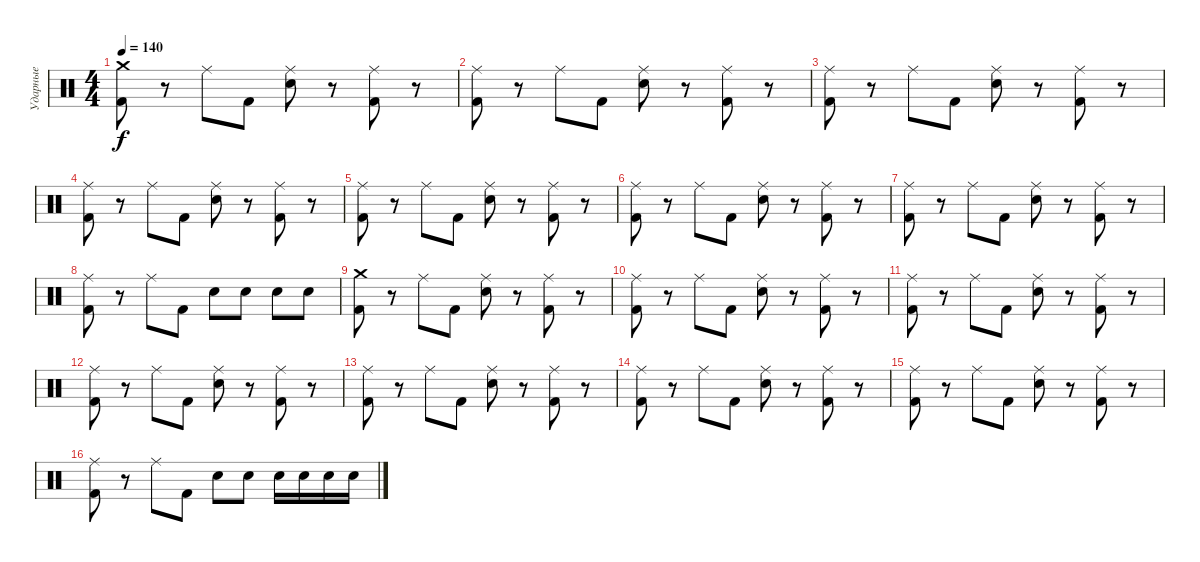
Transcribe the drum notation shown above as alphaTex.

\track ("Ударные" "Ударные") {instrument percussion}
\staff {score}
\articulation defaults
\ts (4 4)
\tempo 140
\clef neutral
\ks c
("Crash medium (hit)" "Kick (hit) 2").8{dy f} r.8 "Ride (middle)".8 "Kick (hit) 2".8 ("Ride (middle)" "Snare (hit) 2").8 r.8 ("Ride (middle)" "Kick (hit) 2").8 r.8 |
("Ride (middle)" "Kick (hit) 2").8 r.8 "Ride (middle)".8 "Kick (hit) 2".8 ("Ride (middle)" "Snare (hit) 2").8 r.8 ("Ride (middle)" "Kick (hit) 2").8 r.8 |
("Ride (middle)" "Kick (hit) 2").8 r.8 "Ride (middle)".8 "Kick (hit) 2".8 ("Ride (middle)" "Snare (hit) 2").8 r.8 ("Ride (middle)" "Kick (hit) 2").8 r.8 |
("Ride (middle)" "Kick (hit) 2").8 r.8 "Ride (middle)".8 "Kick (hit) 2".8 ("Ride (middle)" "Snare (hit) 2").8 r.8 ("Ride (middle)" "Kick (hit) 2").8 r.8 |
("Ride (middle)" "Kick (hit) 2").8 r.8 "Ride (middle)".8 "Kick (hit) 2".8 ("Ride (middle)" "Snare (hit) 2").8 r.8 ("Ride (middle)" "Kick (hit) 2").8 r.8 |
("Ride (middle)" "Kick (hit) 2").8 r.8 "Ride (middle)".8 "Kick (hit) 2".8 ("Ride (middle)" "Snare (hit) 2").8 r.8 ("Ride (middle)" "Kick (hit) 2").8 r.8 |
("Ride (middle)" "Kick (hit) 2").8 r.8 "Ride (middle)".8 "Kick (hit) 2".8 ("Ride (middle)" "Snare (hit) 2").8 r.8 ("Ride (middle)" "Kick (hit) 2").8 r.8 |
("Ride (middle)" "Kick (hit) 2").8 r.8 "Ride (middle)".8 "Kick (hit) 2".8 "Snare (hit) 2".8 "Snare (hit) 2".8 "Snare (hit) 2".8 "Snare (hit) 2".8 |
("Crash medium (hit)" "Kick (hit) 2").8 r.8 "Ride (middle)".8 "Kick (hit) 2".8 ("Ride (middle)" "Snare (hit) 2").8 r.8 ("Ride (middle)" "Kick (hit) 2").8 r.8 |
("Ride (middle)" "Kick (hit) 2").8 r.8 "Ride (middle)".8 "Kick (hit) 2".8 ("Ride (middle)" "Snare (hit) 2").8 r.8 ("Ride (middle)" "Kick (hit) 2").8 r.8 |
("Ride (middle)" "Kick (hit) 2").8 r.8 "Ride (middle)".8 "Kick (hit) 2".8 ("Ride (middle)" "Snare (hit) 2").8 r.8 ("Ride (middle)" "Kick (hit) 2").8 r.8 |
("Ride (middle)" "Kick (hit) 2").8 r.8 "Ride (middle)".8 "Kick (hit) 2".8 ("Ride (middle)" "Snare (hit) 2").8 r.8 ("Ride (middle)" "Kick (hit) 2").8 r.8 |
("Ride (middle)" "Kick (hit) 2").8 r.8 "Ride (middle)".8 "Kick (hit) 2".8 ("Ride (middle)" "Snare (hit) 2").8 r.8 ("Ride (middle)" "Kick (hit) 2").8 r.8 |
("Ride (middle)" "Kick (hit) 2").8 r.8 "Ride (middle)".8 "Kick (hit) 2".8 ("Ride (middle)" "Snare (hit) 2").8 r.8 ("Ride (middle)" "Kick (hit) 2").8 r.8 |
("Ride (middle)" "Kick (hit) 2").8 r.8 "Ride (middle)".8 "Kick (hit) 2".8 ("Ride (middle)" "Snare (hit) 2").8 r.8 ("Ride (middle)" "Kick (hit) 2").8 r.8 |
("Ride (middle)" "Kick (hit) 2").8 r.8 "Ride (middle)".8 "Kick (hit) 2".8 "Snare (hit) 2".8 "Snare (hit) 2".8 "Snare (hit) 2".16 "Snare (hit) 2".16 "Snare (hit) 2".16 "Snare (hit) 2".16
